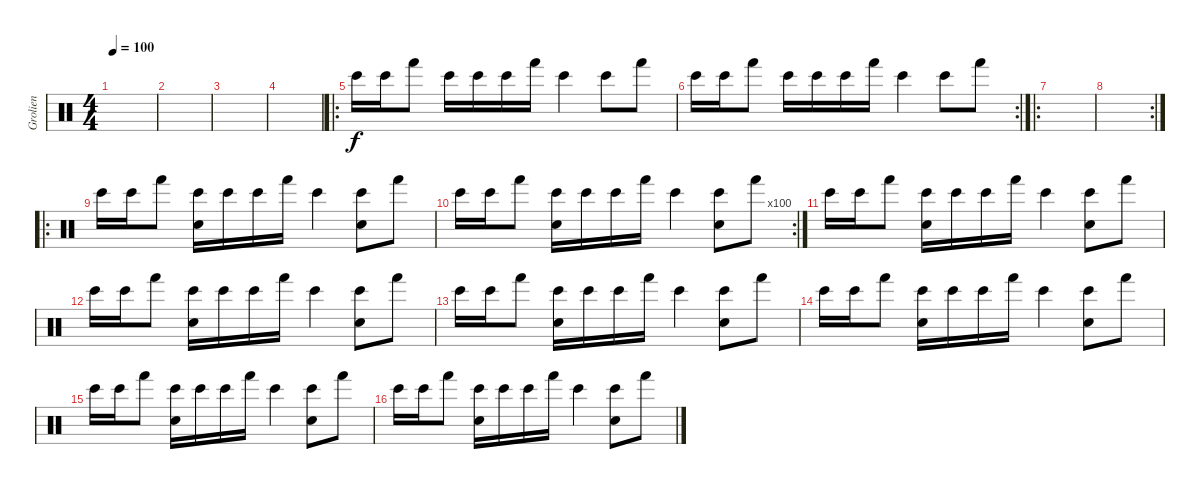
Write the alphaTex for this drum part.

\track ("Grolien" "Grolien") {instrument percussion}
\staff {score}
\articulation defaults
\ts (4 4)
\tempo 100
\clef neutral
\ks c
|
|
|
|
\ro "Bongo High (hit)".16 "Bongo High (hit)".16 "Hand (hit)".8 "Bongo High (hit)".16 "Bongo High (hit)".16 "Bongo High (hit)".16 "Hand (hit)".16 "Bongo High (hit)".4 "Bongo High (hit)".8 "Hand (hit)".8
|
\rc 2 "Bongo High (hit)".16 "Bongo High (hit)".16 "Hand (hit)".8 "Bongo High (hit)".16 "Bongo High (hit)".16 "Bongo High (hit)".16 "Hand (hit)".16 "Bongo High (hit)".4 "Bongo High (hit)".8 "Hand (hit)".8
|
\ro
|
\rc 2
|
\ro "Bongo High (hit)".16 "Bongo High (hit)".16 "Hand (hit)".8
("Hand Clap (hit)" "Bongo High (hit)").16 "Bongo High (hit)".16 "Bongo High (hit)".16 "Hand (hit)".16 "Bongo High (hit)".4 ("Hand Clap (hit)" "Bongo High (hit)").8 "Hand (hit)".8 |
\rc 100 "Bongo High (hit)".16 "Bongo High (hit)".16 "Hand (hit)".8
("Hand Clap (hit)" "Bongo High (hit)").16 "Bongo High (hit)".16 "Bongo High (hit)".16 "Hand (hit)".16 "Bongo High (hit)".4 ("Hand Clap (hit)" "Bongo High (hit)").8 "Hand (hit)".8 |
"Bongo High (hit)".16{volume 13} "Bongo High (hit)".16 "Hand (hit)".8 ("Hand Clap (hit)" "Bongo High (hit)").16 "Bongo High (hit)".16 "Bongo High (hit)".16 "Hand (hit)".16 "Bongo High (hit)".4 ("Hand Clap (hit)" "Bongo High (hit)").8 "Hand (hit)".8 |
"Bongo High (hit)".16 "Bongo High (hit)".16 "Hand (hit)".8 ("Hand Clap (hit)" "Bongo High (hit)").16 "Bongo High (hit)".16 "Bongo High (hit)".16 "Hand (hit)".16 "Bongo High (hit)".4 ("Hand Clap (hit)" "Bongo High (hit)").8 "Hand (hit)".8 |
"Bongo High (hit)".16{volume 10} "Bongo High (hit)".16 "Hand (hit)".8 ("Hand Clap (hit)" "Bongo High (hit)").16 "Bongo High (hit)".16 "Bongo High (hit)".16 "Hand (hit)".16 "Bongo High (hit)".4 ("Hand Clap (hit)" "Bongo High (hit)").8 "Hand (hit)".8 |
"Bongo High (hit)".16 "Bongo High (hit)".16 "Hand (hit)".8 ("Hand Clap (hit)" "Bongo High (hit)").16 "Bongo High (hit)".16 "Bongo High (hit)".16 "Hand (hit)".16 "Bongo High (hit)".4 ("Hand Clap (hit)" "Bongo High (hit)").8 "Hand (hit)".8 |
"Bongo High (hit)".16{volume 7} "Bongo High (hit)".16 "Hand (hit)".8 ("Hand Clap (hit)" "Bongo High (hit)").16 "Bongo High (hit)".16 "Bongo High (hit)".16 "Hand (hit)".16 "Bongo High (hit)".4 ("Hand Clap (hit)" "Bongo High (hit)").8 "Hand (hit)".8 |
"Bongo High (hit)".16 "Bongo High (hit)".16 "Hand (hit)".8 ("Hand Clap (hit)" "Bongo High (hit)").16 "Bongo High (hit)".16 "Bongo High (hit)".16 "Hand (hit)".16 "Bongo High (hit)".4 ("Hand Clap (hit)" "Bongo High (hit)").8 "Hand (hit)".8
